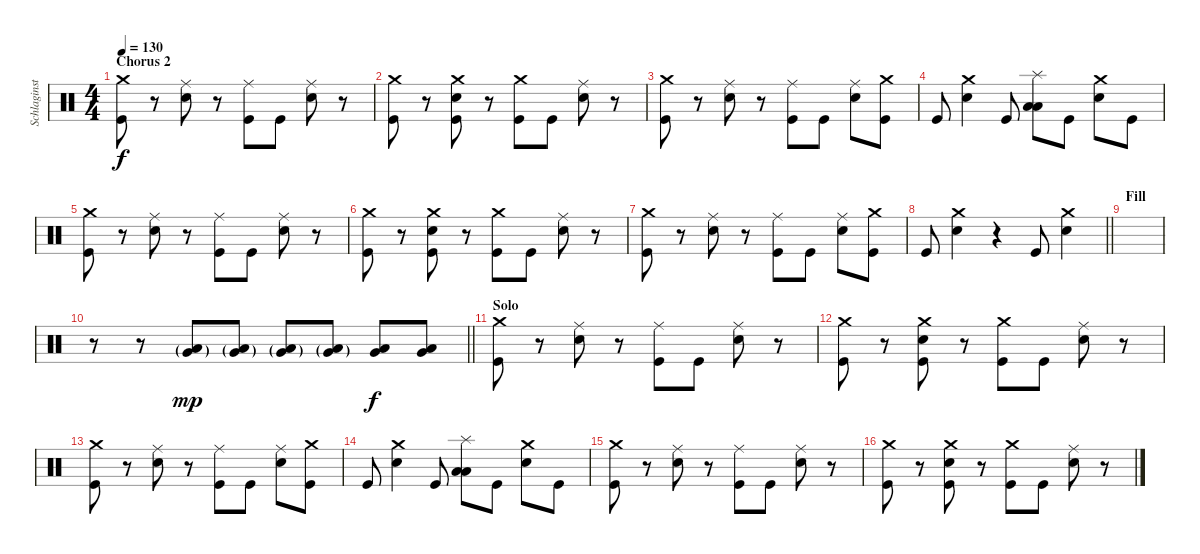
\track ("Schlaginstrumente - Auswahl" "Schlaginst") {instrument percussion}
\staff {score}
\articulation defaults
\ts (4 4)
\section ("" "Chorus 2")
\tempo 130
\clef neutral
\ks c
("Crash medium (hit)" "Kick (hit)").8{dy f} r.8 ("Ride (middle)" "Snare (hit) 2").8 r.8 ("Ride (middle)" "Kick (hit)").8 "Kick (hit)".8 ("Ride (middle)" "Snare (hit) 2").8 r.8 |
("Crash medium (hit)" "Kick (hit)").8 r.8 ("Crash medium (hit)" "Snare (hit) 2" "Kick (hit)").8 r.8 ("Crash medium (hit)" "Kick (hit)").8 "Kick (hit)".8 ("Ride (middle)" "Snare (hit) 2").8 r.8 |
("Crash medium (hit)" "Kick (hit)").8 r.8 ("Ride (middle)" "Snare (hit) 2").8 r.8 ("Ride (middle)" "Kick (hit)").8 "Kick (hit)".8 ("Ride (middle)" "Snare (hit) 2").8 ("Crash medium (hit)" "Kick (hit)").8 |
"Kick (hit)".8 ("Crash medium (hit)" "Snare (hit) 2").4 "Kick (hit)".8 ("Splash (hit)" "Low Tom (hit)" "Low Tom (hit)").8 "Kick (hit)".8 ("Crash medium (hit)" "Snare (hit) 2").8 "Kick (hit)".8 |
("Crash medium (hit)" "Kick (hit)").8 r.8 ("Ride (middle)" "Snare (hit) 2").8 r.8 ("Ride (middle)" "Kick (hit)").8 "Kick (hit)".8 ("Ride (middle)" "Snare (hit) 2").8 r.8 |
("Crash medium (hit)" "Kick (hit)").8 r.8 ("Crash medium (hit)" "Snare (hit) 2" "Kick (hit)").8 r.8 ("Crash medium (hit)" "Kick (hit)").8 "Kick (hit)".8 ("Ride (middle)" "Snare (hit) 2").8 r.8 |
("Crash medium (hit)" "Kick (hit)").8 r.8 ("Ride (middle)" "Snare (hit) 2").8 r.8 ("Ride (middle)" "Kick (hit)").8 "Kick (hit)".8 ("Ride (middle)" "Snare (hit) 2").8 ("Crash medium (hit)" "Kick (hit)").8 |
\barLineRight lightlight "Kick (hit)".8
("Crash medium (hit)" "Snare (hit) 2").4 r.4 "Kick (hit)".8 ("Crash medium (hit)" "Snare (hit) 2").4 |
\section ("" "Fill")
|
\barLineRight lightlight
r.8 r.8 ("Very Low Tom (hit)"{g} "Low Tom (hit)"{g}).8{dy mp} ("Very Low Tom (hit)"{g} "Low Tom (hit)"{g}).8 ("Very Low Tom (hit)"{g} "Low Tom (hit)"{g}).8 ("Very Low Tom (hit)"{g} "Low Tom (hit)"{g}).8 ("Very Low Tom (hit)" "Low Tom (hit)").8{dy f} ("Very Low Tom (hit)" "Low Tom (hit)").8 |
\section ("" "Solo")
("Crash medium (hit)" "Kick (hit)").8 r.8 ("Ride (middle)" "Snare (hit) 2").8 r.8 ("Ride (middle)" "Kick (hit)").8 "Kick (hit)".8 ("Ride (middle)" "Snare (hit) 2").8 r.8 |
("Crash medium (hit)" "Kick (hit)").8 r.8 ("Crash medium (hit)" "Snare (hit) 2" "Kick (hit)").8 r.8 ("Crash medium (hit)" "Kick (hit)").8 "Kick (hit)".8 ("Ride (middle)" "Snare (hit) 2").8 r.8 |
("Crash medium (hit)" "Kick (hit)").8 r.8 ("Ride (middle)" "Snare (hit) 2").8 r.8 ("Ride (middle)" "Kick (hit)").8 "Kick (hit)".8 ("Ride (middle)" "Snare (hit) 2").8 ("Crash medium (hit)" "Kick (hit)").8 |
"Kick (hit)".8 ("Crash medium (hit)" "Snare (hit) 2").4 "Kick (hit)".8 ("Splash (hit)" "Low Tom (hit)" "Low Tom (hit)").8 "Kick (hit)".8 ("Crash medium (hit)" "Snare (hit) 2").8 "Kick (hit)".8 |
("Crash medium (hit)" "Kick (hit)").8 r.8 ("Ride (middle)" "Snare (hit) 2").8 r.8 ("Ride (middle)" "Kick (hit)").8 "Kick (hit)".8 ("Ride (middle)" "Snare (hit) 2").8 r.8 |
("Crash medium (hit)" "Kick (hit)").8 r.8 ("Crash medium (hit)" "Snare (hit) 2" "Kick (hit)").8 r.8 ("Crash medium (hit)" "Kick (hit)").8 "Kick (hit)".8 ("Ride (middle)" "Snare (hit) 2").8 r.8
